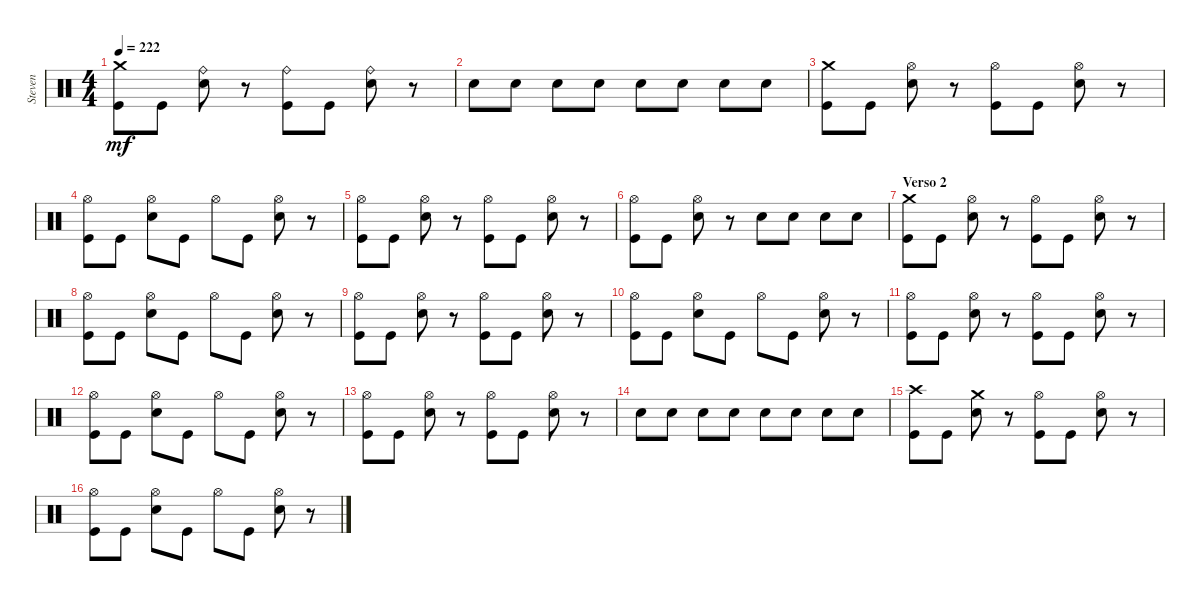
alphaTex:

\track ("Steven" "Steven") {instrument percussion}
\staff {score}
\articulation defaults
\ts (4 4)
\tempo 222
\clef neutral
\ks c
("Kick (hit)" "Crash medium (hit)").8{dy mf} "Kick (hit)".8 ("Snare (hit) 2" "Ride (bell)").8 r.8 ("Kick (hit)" "Ride (bell)").8 "Kick (hit)".8 ("Snare (hit) 2" "Ride (bell)").8 r.8 |
"Snare (hit) 2".8 "Snare (hit) 2".8 "Snare (hit) 2".8 "Snare (hit) 2".8 "Snare (hit) 2".8 "Snare (hit) 2".8 "Snare (hit) 2".8 "Snare (hit) 2".8 |
("Kick (hit)" "Crash medium (hit)").8 "Kick (hit)".8 ("Snare (hit) 2" "Hi-Hat (open)").8 r.8 ("Kick (hit)" "Hi-Hat (open)").8 "Kick (hit)".8 ("Snare (hit) 2" "Hi-Hat (open)").8 r.8 |
("Kick (hit)" "Hi-Hat (open)").8 "Kick (hit)".8 ("Snare (hit) 2" "Hi-Hat (open)").8 "Kick (hit)".8 "Hi-Hat (open)".8 "Kick (hit)".8 ("Snare (hit) 2" "Hi-Hat (open)").8 r.8 |
("Kick (hit)" "Hi-Hat (open)").8 "Kick (hit)".8 ("Snare (hit) 2" "Hi-Hat (open)").8 r.8 ("Kick (hit)" "Hi-Hat (open)").8 "Kick (hit)".8 ("Snare (hit) 2" "Hi-Hat (open)").8 r.8 |
("Kick (hit)" "Hi-Hat (open)").8 "Kick (hit)".8 ("Snare (hit) 2" "Hi-Hat (open)").8 r.8 "Snare (hit) 2".8 "Snare (hit) 2".8 "Snare (hit) 2".8 "Snare (hit) 2".8 |
\section ("" "Verso 2")
("Kick (hit)" "Crash medium (hit)").8 "Kick (hit)".8 ("Snare (hit) 2" "Hi-Hat (open)").8 r.8 ("Kick (hit)" "Hi-Hat (open)").8 "Kick (hit)".8 ("Snare (hit) 2" "Hi-Hat (open)").8 r.8 |
("Kick (hit)" "Hi-Hat (open)").8 "Kick (hit)".8 ("Snare (hit) 2" "Hi-Hat (open)").8 "Kick (hit)".8 "Hi-Hat (open)".8 "Kick (hit)".8 ("Snare (hit) 2" "Hi-Hat (open)").8 r.8 |
("Kick (hit)" "Hi-Hat (open)").8 "Kick (hit)".8 ("Snare (hit) 2" "Hi-Hat (open)").8 r.8 ("Kick (hit)" "Hi-Hat (open)").8 "Kick (hit)".8 ("Snare (hit) 2" "Hi-Hat (open)").8 r.8 |
("Kick (hit)" "Hi-Hat (open)").8 "Kick (hit)".8 ("Snare (hit) 2" "Hi-Hat (open)").8 "Kick (hit)".8 "Hi-Hat (open)".8 "Kick (hit)".8 ("Snare (hit) 2" "Hi-Hat (open)").8 r.8 |
("Kick (hit)" "Hi-Hat (open)").8 "Kick (hit)".8 ("Snare (hit) 2" "Hi-Hat (open)").8 r.8 ("Kick (hit)" "Hi-Hat (open)").8 "Kick (hit)".8 ("Snare (hit) 2" "Hi-Hat (open)").8 r.8 |
("Kick (hit)" "Hi-Hat (open)").8 "Kick (hit)".8 ("Snare (hit) 2" "Hi-Hat (open)").8 "Kick (hit)".8 "Hi-Hat (open)".8 "Kick (hit)".8 ("Snare (hit) 2" "Hi-Hat (open)").8 r.8 |
("Kick (hit)" "Hi-Hat (open)").8 "Kick (hit)".8 ("Snare (hit) 2" "Hi-Hat (open)").8 r.8 ("Kick (hit)" "Hi-Hat (open)").8 "Kick (hit)".8 ("Snare (hit) 2" "Hi-Hat (open)").8 r.8 |
"Snare (hit) 2".8 "Snare (hit) 2".8 "Snare (hit) 2".8 "Snare (hit) 2".8 "Snare (hit) 2".8 "Snare (hit) 2".8 "Snare (hit) 2".8 "Snare (hit) 2".8 |
("Kick (hit)" "Crash high (hit)").8 "Kick (hit)".8 ("Snare (hit) 2" "Crash medium (hit)").8 r.8 ("Kick (hit)" "Hi-Hat (open)").8 "Kick (hit)".8 ("Snare (hit) 2" "Hi-Hat (open)").8 r.8 |
("Kick (hit)" "Hi-Hat (open)").8 "Kick (hit)".8 ("Snare (hit) 2" "Hi-Hat (open)").8 "Kick (hit)".8 "Hi-Hat (open)".8 "Kick (hit)".8 ("Snare (hit) 2" "Hi-Hat (open)").8 r.8
